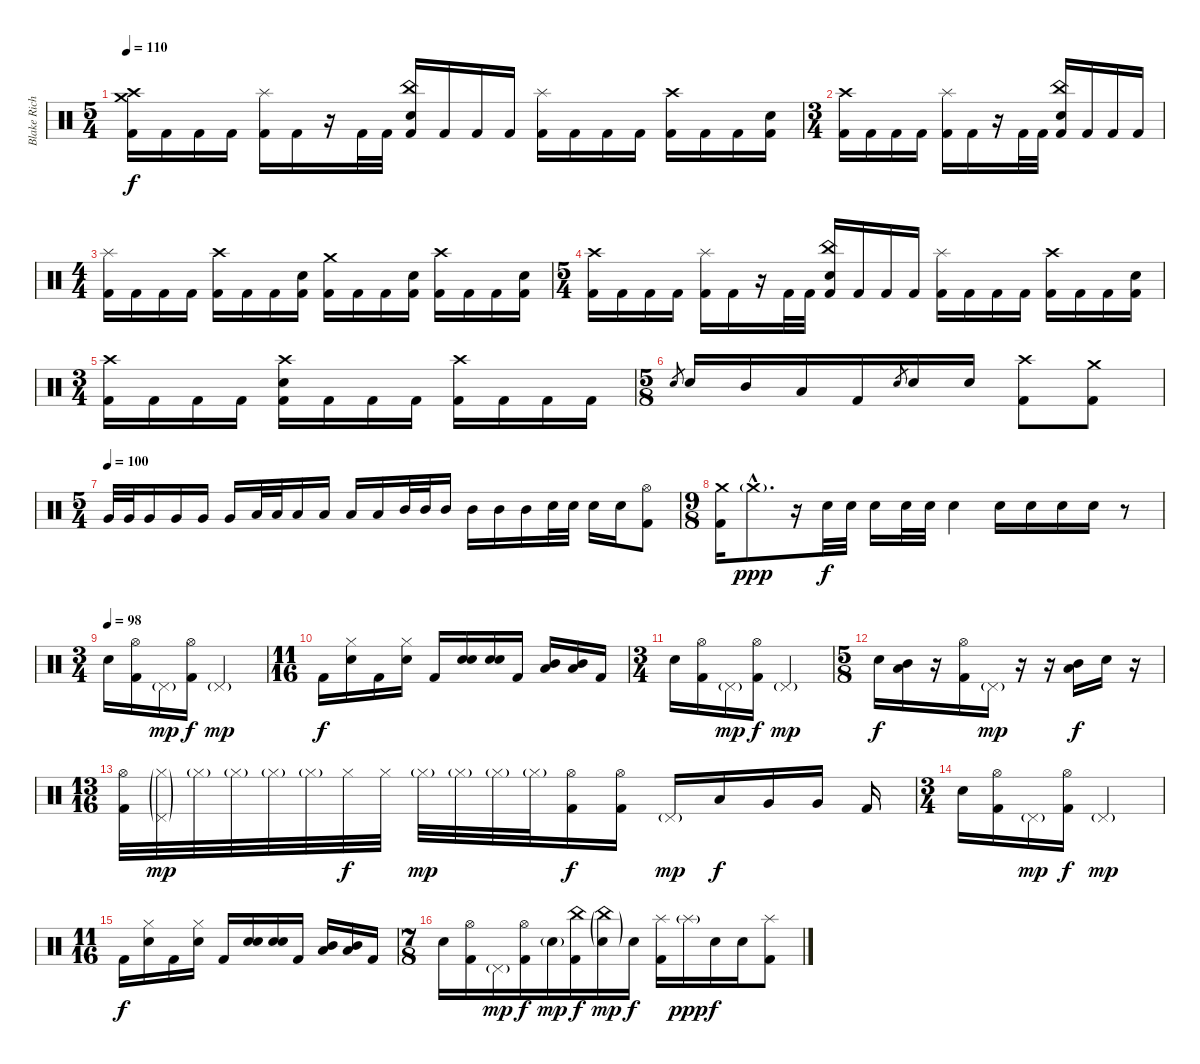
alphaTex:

\track ("Blake Richardson - Drums" "Blake Rich") {instrument percussion}
\staff {score}
\articulation defaults
\ts (5 4)
\tempo 110
\clef neutral
\ks c
("Crash high (hit)" "Crash medium (hit)" "Kick (hit) 2").16{dy f} "Kick (hit) 2".16 "Kick (hit) 2".16 "Kick (hit) 2".16 ("Splash (hit)" "Kick (hit) 2").16 "Kick (hit) 2".16 r.16 "Kick (hit) 2".32 "Kick (hit) 2".32 ("China (hit)" "Electric Snare (hit)" "Kick (hit) 2").16 "Kick (hit) 2".16 "Kick (hit) 2".16 "Kick (hit) 2".16 ("Splash (hit)" "Kick (hit) 2").16 "Kick (hit) 2".16 "Kick (hit) 2".16 "Kick (hit) 2".16 ("Crash high (hit)" "Kick (hit) 2").16 "Kick (hit) 2".16 "Kick (hit) 2".16 ("Electric Snare (hit)" "Kick (hit) 2").16 |
\ts (3 4)
("Crash high (hit)" "Kick (hit) 2").16 "Kick (hit) 2".16 "Kick (hit) 2".16 "Kick (hit) 2".16 ("Splash (hit)" "Kick (hit) 2").16 "Kick (hit) 2".16 r.16 "Kick (hit) 2".32 "Kick (hit) 2".32 ("China (hit)" "Electric Snare (hit)" "Kick (hit) 2").16 "Kick (hit) 2".16 "Kick (hit) 2".16 "Kick (hit) 2".16 |
\ts (4 4)
("Splash (hit)" "Kick (hit) 2").16 "Kick (hit) 2".16 "Kick (hit) 2".16 "Kick (hit) 2".16 ("Crash high (hit)" "Kick (hit) 2").16 "Kick (hit) 2".16 "Kick (hit) 2".16 ("Electric Snare (hit)" "Kick (hit) 2").16 ("Crash medium (hit)" "Kick (hit) 2").16 "Kick (hit) 2".16 "Kick (hit) 2".16 ("Electric Snare (hit)" "Kick (hit) 2").16 ("Crash high (hit)" "Kick (hit) 2").16 "Kick (hit) 2".16 "Kick (hit) 2".16 ("Electric Snare (hit)" "Kick (hit) 2").16 |
\ts (5 4)
("Crash high (hit)" "Kick (hit) 2").16 "Kick (hit) 2".16 "Kick (hit) 2".16 "Kick (hit) 2".16 ("Splash (hit)" "Kick (hit) 2").16 "Kick (hit) 2".16 r.16 "Kick (hit) 2".32 "Kick (hit) 2".32 ("China (hit)" "Electric Snare (hit)" "Kick (hit) 2").16 "Kick (hit) 2".16 "Kick (hit) 2".16 "Kick (hit) 2".16 ("Splash (hit)" "Kick (hit) 2").16 "Kick (hit) 2".16 "Kick (hit) 2".16 "Kick (hit) 2".16 ("Crash high (hit)" "Kick (hit) 2").16 "Kick (hit) 2".16 "Kick (hit) 2".16 ("Electric Snare (hit)" "Kick (hit) 2").16 |
\ts (3 4)
("Crash high (hit)" "Kick (hit) 2").16 "Kick (hit) 2".16 "Kick (hit) 2".16 "Kick (hit) 2".16 ("Crash high (hit)" "Electric Snare (hit)" "Kick (hit) 2").16 "Kick (hit) 2".16 "Kick (hit) 2".16 "Kick (hit) 2".16 ("Crash high (hit)" "Kick (hit) 2").16 "Kick (hit) 2".16 "Kick (hit) 2".16 "Kick (hit) 2".16 |
\ts (5 8)
"Electric Snare (hit)".8{gr} "Electric Snare (hit)".16 "Mid Tom (hit)".16 "Low Tom (hit)".16 "Kick (hit) 2".16 "Electric Snare (hit)".8{gr} "Electric Snare (hit)".16 "Electric Snare (hit)".16 ("Crash high (hit)" "Kick (hit) 2").8 ("Crash medium (hit)" "Kick (hit) 2").8 |
\ts (5 4)
\tempo (100)
"Very Low Tom (hit)".32 "Very Low Tom (hit)".32 "Very Low Tom (hit)".16 "Very Low Tom (hit)".16 "Very Low Tom (hit)".16 "Very Low Tom (hit)".16 "Low Tom (hit)".32 "Low Tom (hit)".32 "Low Tom (hit)".16 "Low Tom (hit)".16 "Low Tom (hit)".16 "Low Tom (hit)".16 "Mid Tom (hit)".32 "Mid Tom (hit)".32 "Mid Tom (hit)".16 "Mid Tom (hit)".16 "Mid Tom (hit)".16 "Mid Tom (hit)".16 "Electric Snare (hit)".32 "Electric Snare (hit)".32 "Electric Snare (hit)".16 "Electric Snare (hit)".16 ("Hi-Hat (open)" "Kick (hit) 2").8 |
\ts (9 8)
("Crash medium (hit)" "Kick (hit) 2").16 "Crash medium (hit)"{g hac}.8{d dy ppp volume 0} r.16 "Electric Snare (hit)".32{dy f volume 16} "Electric Snare (hit)".32 "Electric Snare (hit)".16 "Electric Snare (hit)".32 "Electric Snare (hit)".32 "Electric Snare (hit)".4 "Electric Snare (hit)".16 "Electric Snare (hit)".16 "Electric Snare (hit)".16 "Electric Snare (hit)".16 r.8 |
\ts (3 4)
\tempo (98)
"Electric Snare (hit)".16 ("Hi-Hat (open)" "Kick (hit) 2").16 "Pedal Hi-Hat (hit)"{g}.16{dy mp} ("Hi-Hat (open)" "Kick (hit) 2").16{dy f} "Pedal Hi-Hat (hit)"{g}.2{dy mp} |
\ts (11 16)
"Kick (hit) 2".16{dy f} ("Hi-Hat (closed)" "Electric Snare (hit)").16 "Kick (hit) 2".16 ("Hi-Hat (closed)" "Electric Snare (hit)").16 "Kick (hit) 2".16 ("Electric Snare (hit)" "Electric Snare (hit)").16 ("Electric Snare (hit)" "Electric Snare (hit)").16 "Kick (hit) 2".16 ("Mid Tom (hit)" "Low Tom (hit)").16 ("Mid Tom (hit)" "Low Tom (hit)").16 "Kick (hit) 2".16 |
\ts (3 4)
"Electric Snare (hit)".16 ("Hi-Hat (open)" "Kick (hit) 2").16 "Pedal Hi-Hat (hit)"{g}.16{dy mp} ("Hi-Hat (open)" "Kick (hit) 2").16{dy f} "Pedal Hi-Hat (hit)"{g}.2{dy mp} |
\ts (5 8)
"Electric Snare (hit)".16{dy f} ("Mid Tom (hit)" "Low Tom (hit)").16 r.16 ("Hi-Hat (open)" "Kick (hit) 2").16 "Pedal Hi-Hat (hit)"{g}.16{dy mp} r.16 r.16 ("Mid Tom (hit)" "Low Tom (hit)").16{dy f} "Electric Snare (hit)".16 r.16 |
\ts (13 16)
("Hi-Hat (open)" "Kick (hit) 2").32 ("Hi-Hat (closed)"{g} "Pedal Hi-Hat (hit)"{g}).32{dy mp} "Hi-Hat (closed)"{g}.32 "Hi-Hat (closed)"{g}.32 "Hi-Hat (closed)"{g}.32 "Hi-Hat (closed)"{g}.32 "Hi-Hat (closed)".32{dy f} "Hi-Hat (closed)".32 "Hi-Hat (closed)"{g}.32{dy mp} "Hi-Hat (closed)"{g}.32 "Hi-Hat (closed)"{g}.32 "Hi-Hat (closed)"{g}.32 ("Hi-Hat (open)" "Kick (hit) 2").16{dy f} ("Hi-Hat (open)" "Kick (hit) 2").16 "Pedal Hi-Hat (hit)"{g}.16{dy mp} "Low Tom (hit)".16{dy f} "Very Low Tom (hit)".16 "Very Low Tom (hit)".16 "Kick (hit) 2".16 |
\ts (3 4)
"Electric Snare (hit)".16 ("Hi-Hat (open)" "Kick (hit) 2").16 "Pedal Hi-Hat (hit)"{g}.16{dy mp} ("Hi-Hat (open)" "Kick (hit) 2").16{dy f} "Pedal Hi-Hat (hit)"{g}.2{dy mp} |
\ts (11 16)
"Kick (hit) 2".16{dy f} ("Hi-Hat (closed)" "Electric Snare (hit)").16 "Kick (hit) 2".16 ("Hi-Hat (closed)" "Electric Snare (hit)").16 "Kick (hit) 2".16 ("Electric Snare (hit)" "Electric Snare (hit)").16 ("Electric Snare (hit)" "Electric Snare (hit)").16 "Kick (hit) 2".16 ("Mid Tom (hit)" "Low Tom (hit)").16 ("Mid Tom (hit)" "Low Tom (hit)").16 "Kick (hit) 2".16 |
\ts (7 8)
"Electric Snare (hit)".16 ("Hi-Hat (open)" "Kick (hit) 2").16 "Pedal Hi-Hat (hit)"{g}.16{dy mp} ("Hi-Hat (open)" "Kick (hit) 2").16{dy f} "Electric Snare (hit)"{g}.16{dy mp} ("China (hit)" "Kick (hit) 2").16{dy f} ("China (hit)"{g} "Electric Snare (hit)"{g}).16{dy mp} "Electric Snare (hit)".16{dy f} ("Splash (hit)" "Kick (hit) 2").16 "Splash (hit)"{g}.16{dy ppp} "Electric Snare (hit)".16{dy f} "Electric Snare (hit)".16 ("Splash (hit)" "Kick (hit) 2").8
